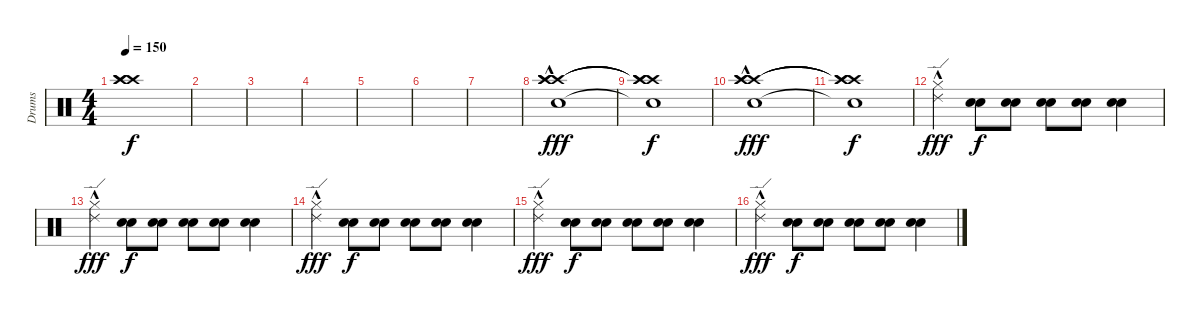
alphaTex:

\track ("Drums" "Drums") {instrument percussion}
\staff {score}
\articulation defaults
\ts (4 4)
\tempo 150
\clef neutral
\ks c
("Crash high (hit)"{t} "Crash high (hit)"{t} "Crash high (hit)"{t}).1{dy f} |
|
|
|
|
|
|
("Crash high (hit)"{hac} "Crash high (hit)"{hac} "Crash high (hit)"{hac} "Snare (hit) 2"{hac}).1{dy fff} |
("Crash high (hit)"{t} "Crash high (hit)"{t} "Crash high (hit)"{t} "Snare (hit) 2"{t}).1{dy f} |
("Crash high (hit)"{hac} "Crash high (hit)"{hac} "Crash high (hit)"{hac} "Snare (hit) 2"{hac}).1{dy fff} |
("Crash high (hit)"{t} "Crash high (hit)"{t} "Crash high (hit)"{t} "Snare (hit) 2"{t}).1{dy f} |
("Hi-Hat (closed)" "Ride (edge) 2"{hac}).4{dy fff} ("Electric Snare (hit)" "Electric Snare (hit)").8{dy f} ("Electric Snare (hit)" "Electric Snare (hit)").8 ("Electric Snare (hit)" "Electric Snare (hit)").8 ("Electric Snare (hit)" "Electric Snare (hit)").8 ("Electric Snare (hit)" "Electric Snare (hit)").4 |
("Hi-Hat (closed)" "Ride (edge) 2"{hac}).4{dy fff} ("Electric Snare (hit)" "Electric Snare (hit)").8{dy f} ("Electric Snare (hit)" "Electric Snare (hit)").8 ("Electric Snare (hit)" "Electric Snare (hit)").8 ("Electric Snare (hit)" "Electric Snare (hit)").8 ("Electric Snare (hit)" "Electric Snare (hit)").4 |
("Hi-Hat (closed)" "Ride (edge) 2"{hac}).4{dy fff} ("Electric Snare (hit)" "Electric Snare (hit)").8{dy f} ("Electric Snare (hit)" "Electric Snare (hit)").8 ("Electric Snare (hit)" "Electric Snare (hit)").8 ("Electric Snare (hit)" "Electric Snare (hit)").8 ("Electric Snare (hit)" "Electric Snare (hit)").4 |
("Hi-Hat (closed)" "Ride (edge) 2"{hac}).4{dy fff} ("Electric Snare (hit)" "Electric Snare (hit)").8{dy f} ("Electric Snare (hit)" "Electric Snare (hit)").8 ("Electric Snare (hit)" "Electric Snare (hit)").8 ("Electric Snare (hit)" "Electric Snare (hit)").8 ("Electric Snare (hit)" "Electric Snare (hit)").4 |
("Hi-Hat (closed)" "Ride (edge) 2"{hac}).4{dy fff} ("Electric Snare (hit)" "Electric Snare (hit)").8{dy f} ("Electric Snare (hit)" "Electric Snare (hit)").8 ("Electric Snare (hit)" "Electric Snare (hit)").8 ("Electric Snare (hit)" "Electric Snare (hit)").8 ("Electric Snare (hit)" "Electric Snare (hit)").4
